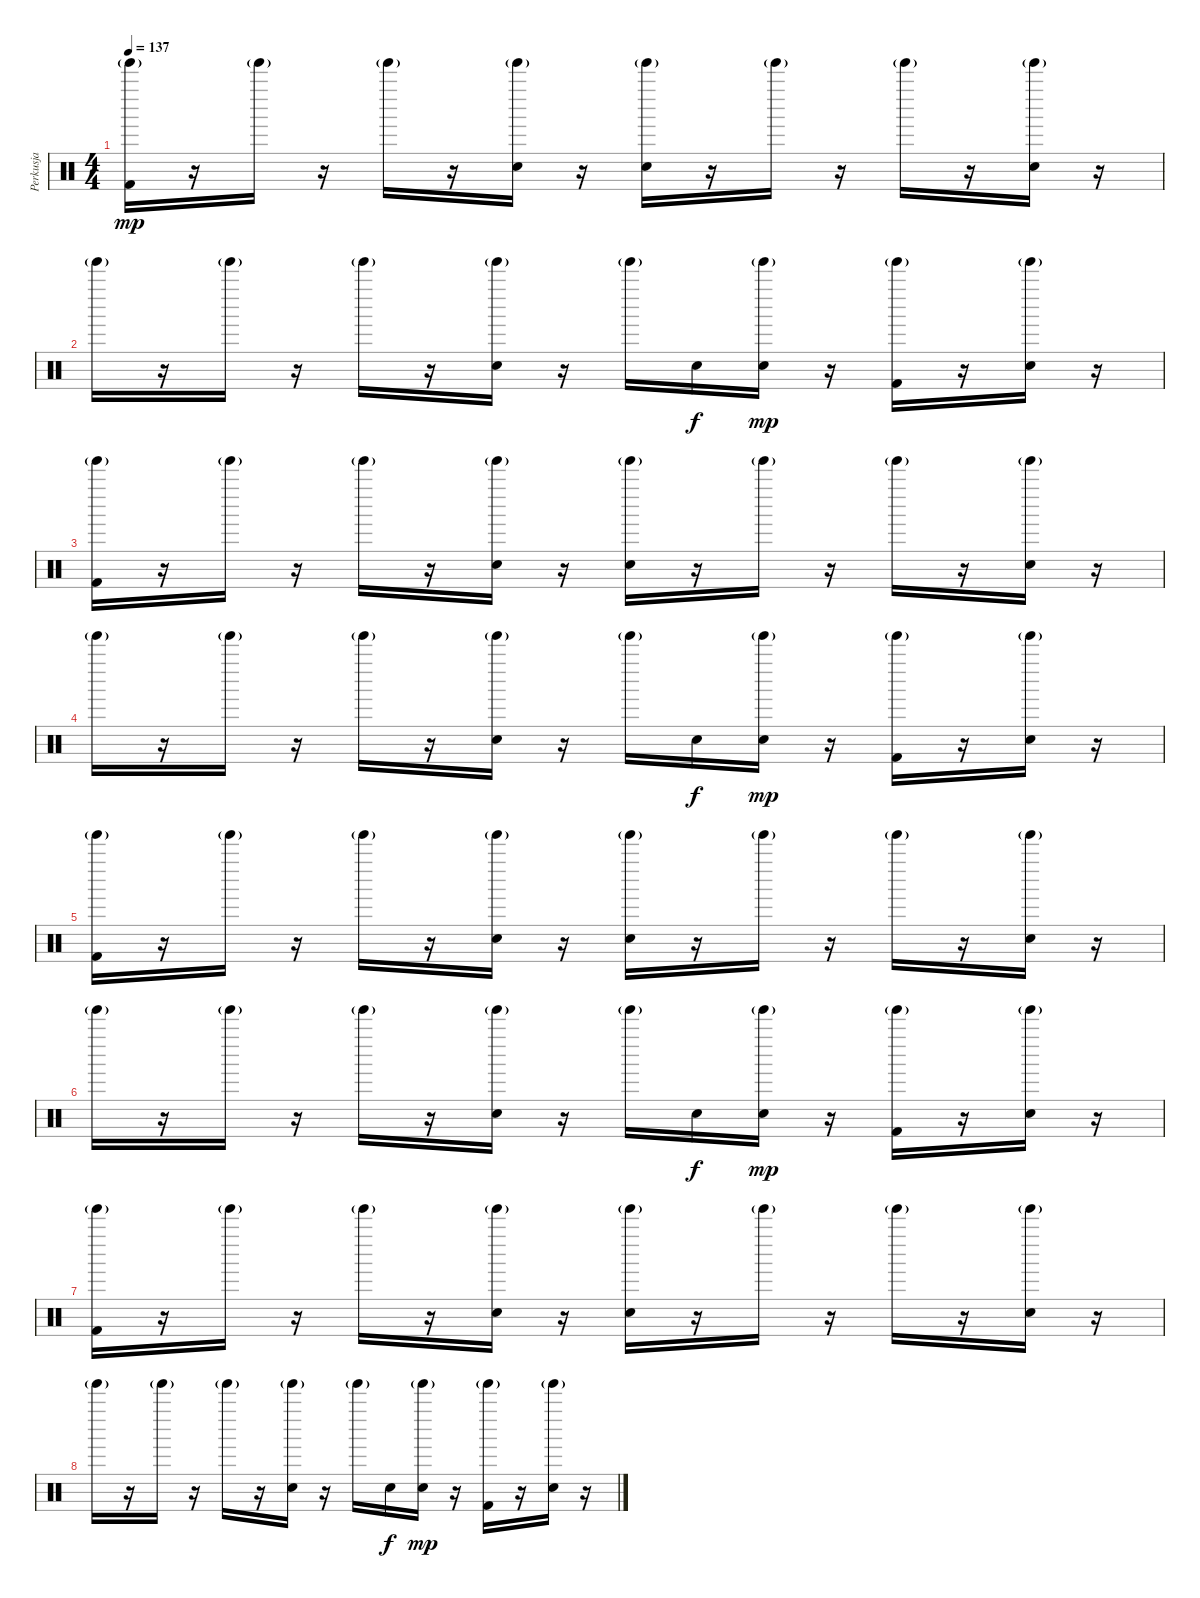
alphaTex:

\track ("Perkusja" "Perkusja") {instrument percussion}
\staff {score}
\articulation defaults
\ts (4 4)
\tempo 137
\clef neutral
\ks c
("Kick (hit) 2" "Tinkle Bell (hit)"{g}).16{dy mp} r.16 "Tinkle Bell (hit)"{g}.16 r.16 "Tinkle Bell (hit)"{g}.16 r.16 ("Electric Snare (hit)" "Tinkle Bell (hit)"{g}).16 r.16 ("Electric Snare (hit)" "Tinkle Bell (hit)"{g}).16 r.16 "Tinkle Bell (hit)"{g}.16 r.16 "Tinkle Bell (hit)"{g}.16 r.16 ("Electric Snare (hit)" "Tinkle Bell (hit)"{g}).16 r.16 |
"Tinkle Bell (hit)"{g}.16 r.16 "Tinkle Bell (hit)"{g}.16 r.16 "Tinkle Bell (hit)"{g}.16 r.16 ("Electric Snare (hit)" "Tinkle Bell (hit)"{g}).16 r.16 "Tinkle Bell (hit)"{g}.16 "Electric Snare (hit)".16{dy f} ("Electric Snare (hit)" "Tinkle Bell (hit)"{g}).16{dy mp} r.16 ("Kick (hit) 2" "Tinkle Bell (hit)"{g}).16 r.16 ("Electric Snare (hit)" "Tinkle Bell (hit)"{g}).16 r.16 |
("Kick (hit) 2" "Tinkle Bell (hit)"{g}).16 r.16 "Tinkle Bell (hit)"{g}.16 r.16 "Tinkle Bell (hit)"{g}.16 r.16 ("Electric Snare (hit)" "Tinkle Bell (hit)"{g}).16 r.16 ("Electric Snare (hit)" "Tinkle Bell (hit)"{g}).16 r.16 "Tinkle Bell (hit)"{g}.16 r.16 "Tinkle Bell (hit)"{g}.16 r.16 ("Electric Snare (hit)" "Tinkle Bell (hit)"{g}).16 r.16 |
"Tinkle Bell (hit)"{g}.16 r.16 "Tinkle Bell (hit)"{g}.16 r.16 "Tinkle Bell (hit)"{g}.16 r.16 ("Electric Snare (hit)" "Tinkle Bell (hit)"{g}).16 r.16 "Tinkle Bell (hit)"{g}.16 "Electric Snare (hit)".16{dy f} ("Electric Snare (hit)" "Tinkle Bell (hit)"{g}).16{dy mp} r.16 ("Kick (hit) 2" "Tinkle Bell (hit)"{g}).16 r.16 ("Electric Snare (hit)" "Tinkle Bell (hit)"{g}).16 r.16 |
("Kick (hit) 2" "Tinkle Bell (hit)"{g}).16 r.16 "Tinkle Bell (hit)"{g}.16 r.16 "Tinkle Bell (hit)"{g}.16 r.16 ("Electric Snare (hit)" "Tinkle Bell (hit)"{g}).16 r.16 ("Electric Snare (hit)" "Tinkle Bell (hit)"{g}).16 r.16 "Tinkle Bell (hit)"{g}.16 r.16 "Tinkle Bell (hit)"{g}.16 r.16 ("Electric Snare (hit)" "Tinkle Bell (hit)"{g}).16 r.16 |
"Tinkle Bell (hit)"{g}.16 r.16 "Tinkle Bell (hit)"{g}.16 r.16 "Tinkle Bell (hit)"{g}.16 r.16 ("Electric Snare (hit)" "Tinkle Bell (hit)"{g}).16 r.16 "Tinkle Bell (hit)"{g}.16 "Electric Snare (hit)".16{dy f} ("Electric Snare (hit)" "Tinkle Bell (hit)"{g}).16{dy mp} r.16 ("Kick (hit) 2" "Tinkle Bell (hit)"{g}).16 r.16 ("Electric Snare (hit)" "Tinkle Bell (hit)"{g}).16 r.16 |
("Kick (hit) 2" "Tinkle Bell (hit)"{g}).16 r.16 "Tinkle Bell (hit)"{g}.16 r.16 "Tinkle Bell (hit)"{g}.16 r.16 ("Electric Snare (hit)" "Tinkle Bell (hit)"{g}).16 r.16 ("Electric Snare (hit)" "Tinkle Bell (hit)"{g}).16 r.16 "Tinkle Bell (hit)"{g}.16 r.16 "Tinkle Bell (hit)"{g}.16 r.16 ("Electric Snare (hit)" "Tinkle Bell (hit)"{g}).16 r.16 |
"Tinkle Bell (hit)"{g}.16 r.16 "Tinkle Bell (hit)"{g}.16 r.16 "Tinkle Bell (hit)"{g}.16 r.16 ("Electric Snare (hit)" "Tinkle Bell (hit)"{g}).16 r.16 "Tinkle Bell (hit)"{g}.16 "Electric Snare (hit)".16{dy f} ("Electric Snare (hit)" "Tinkle Bell (hit)"{g}).16{dy mp} r.16 ("Kick (hit) 2" "Tinkle Bell (hit)"{g}).16 r.16 ("Electric Snare (hit)" "Tinkle Bell (hit)"{g}).16 r.16
